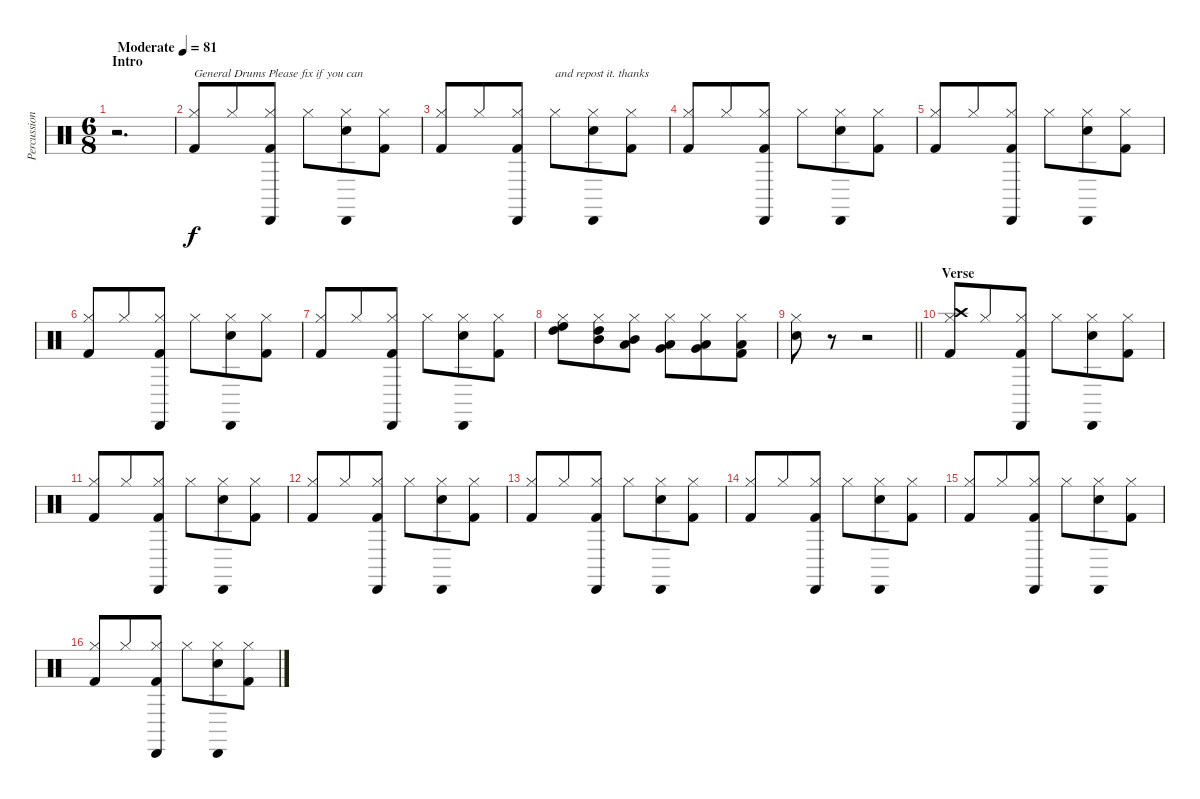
\track ("Percussion" "Percussion") {instrument percussion}
\staff {score}
\articulation defaults
\ts (6 8)
\section ("" "Intro")
\tempo (81 "Moderate")
\clef neutral
\ks c
r.2{d dy f} |
("Hi-Hat (closed)" "Kick (hit) 2").8{txt "General Drums Please fix if you can"} "Hi-Hat (closed)".8 ("Hi-Hat (closed)" "Kick (hit) 2" "Cabasa (hit)").8 "Hi-Hat (closed)".8 ("Hi-Hat (closed)" "Snare (hit) 2" "Cabasa (hit)").8 ("Hi-Hat (closed)" "Kick (hit) 2").8 |
("Hi-Hat (closed)" "Kick (hit) 2").8 "Hi-Hat (closed)".8 ("Hi-Hat (closed)" "Kick (hit) 2" "Cabasa (hit)").8 "Hi-Hat (closed)".8{txt "and repost it. thanks"} ("Hi-Hat (closed)" "Snare (hit) 2" "Cabasa (hit)").8 ("Hi-Hat (closed)" "Kick (hit) 2").8 |
("Hi-Hat (closed)" "Kick (hit) 2").8 "Hi-Hat (closed)".8 ("Hi-Hat (closed)" "Kick (hit) 2" "Cabasa (hit)").8 "Hi-Hat (closed)".8 ("Hi-Hat (closed)" "Snare (hit) 2" "Cabasa (hit)").8 ("Hi-Hat (closed)" "Kick (hit) 2").8 |
("Hi-Hat (closed)" "Kick (hit) 2").8 "Hi-Hat (closed)".8 ("Hi-Hat (closed)" "Kick (hit) 2" "Cabasa (hit)").8 "Hi-Hat (closed)".8 ("Hi-Hat (closed)" "Snare (hit) 2" "Cabasa (hit)").8 ("Hi-Hat (closed)" "Kick (hit) 2").8 |
("Hi-Hat (closed)" "Kick (hit) 2").8 "Hi-Hat (closed)".8 ("Hi-Hat (closed)" "Kick (hit) 2" "Cabasa (hit)").8 "Hi-Hat (closed)".8 ("Hi-Hat (closed)" "Snare (hit) 2" "Cabasa (hit)").8 ("Hi-Hat (closed)" "Kick (hit) 2").8 |
("Hi-Hat (closed)" "Kick (hit) 2").8 "Hi-Hat (closed)".8 ("Hi-Hat (closed)" "Kick (hit) 2" "Cabasa (hit)").8 "Hi-Hat (closed)".8 ("Hi-Hat (closed)" "Snare (hit) 2" "Cabasa (hit)").8 ("Hi-Hat (closed)" "Kick (hit) 2").8 |
("Hi-Hat (closed)" "High Floor Tom (hit)" "High Tom (hit)").8 ("Hi-Hat (closed)" "High Tom (hit)" "Mid Tom (hit)").8 ("Hi-Hat (closed)" "Mid Tom (hit)" "Low Tom (hit)").8 ("Hi-Hat (closed)" "Low Tom (hit)" "Very Low Tom (hit)").8 ("Hi-Hat (closed)" "Very Low Tom (hit)" "Low Floor Tom (hit)").8 ("Hi-Hat (closed)" "Low Floor Tom (hit)" "Kick (hit) 2").8 |
\barLineRight lightlight
("Hi-Hat (closed)" "Snare (hit) 2").8 r.8 r.2 |
\section ("" "Verse")
("Hi-Hat (closed)" "Kick (hit) 2" "Crash high (hit)").8 "Hi-Hat (closed)".8 ("Hi-Hat (closed)" "Kick (hit) 2" "Cabasa (hit)").8 "Hi-Hat (closed)".8 ("Hi-Hat (closed)" "Snare (hit) 2" "Cabasa (hit)").8 ("Hi-Hat (closed)" "Kick (hit) 2").8 |
("Hi-Hat (closed)" "Kick (hit) 2").8 "Hi-Hat (closed)".8 ("Hi-Hat (closed)" "Kick (hit) 2" "Cabasa (hit)").8 "Hi-Hat (closed)".8 ("Hi-Hat (closed)" "Snare (hit) 2" "Cabasa (hit)").8 ("Hi-Hat (closed)" "Kick (hit) 2").8 |
("Hi-Hat (closed)" "Kick (hit) 2").8 "Hi-Hat (closed)".8 ("Hi-Hat (closed)" "Kick (hit) 2" "Cabasa (hit)").8 "Hi-Hat (closed)".8 ("Hi-Hat (closed)" "Snare (hit) 2" "Cabasa (hit)").8 ("Hi-Hat (closed)" "Kick (hit) 2").8 |
("Hi-Hat (closed)" "Kick (hit) 2").8 "Hi-Hat (closed)".8 ("Hi-Hat (closed)" "Kick (hit) 2" "Cabasa (hit)").8 "Hi-Hat (closed)".8 ("Hi-Hat (closed)" "Snare (hit) 2" "Cabasa (hit)").8 ("Hi-Hat (closed)" "Kick (hit) 2").8 |
("Hi-Hat (closed)" "Kick (hit) 2").8 "Hi-Hat (closed)".8 ("Hi-Hat (closed)" "Kick (hit) 2" "Cabasa (hit)").8 "Hi-Hat (closed)".8 ("Hi-Hat (closed)" "Snare (hit) 2" "Cabasa (hit)").8 ("Hi-Hat (closed)" "Kick (hit) 2").8 |
("Hi-Hat (closed)" "Kick (hit) 2").8 "Hi-Hat (closed)".8 ("Hi-Hat (closed)" "Kick (hit) 2" "Cabasa (hit)").8 "Hi-Hat (closed)".8 ("Hi-Hat (closed)" "Snare (hit) 2" "Cabasa (hit)").8 ("Hi-Hat (closed)" "Kick (hit) 2").8 |
("Hi-Hat (closed)" "Kick (hit) 2").8 "Hi-Hat (closed)".8 ("Hi-Hat (closed)" "Kick (hit) 2" "Cabasa (hit)").8 "Hi-Hat (closed)".8 ("Hi-Hat (closed)" "Snare (hit) 2" "Cabasa (hit)").8 ("Hi-Hat (closed)" "Kick (hit) 2").8
